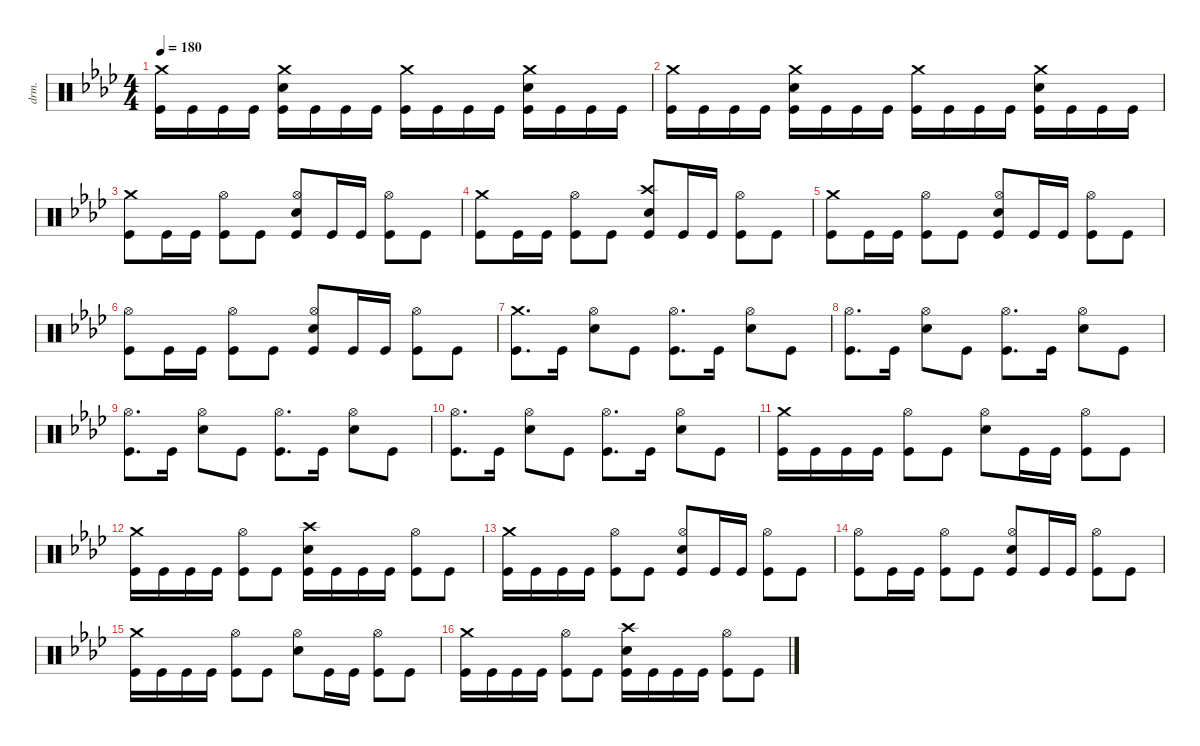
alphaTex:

\defaultSystemsLayout 4
\hideDynamics
\bracketExtendMode nobrackets
\track ("Percussion" "drm.") {instrument percussion}
\staff {score}
\articulation defaults
\ts (4 4)
\tempo 180
\clef neutral
\ks fminor
("Crash medium (hit)"{acc forcenatural} "Kick (hit)"{acc forcenatural}).16{dy f beam Down} "Kick (hit)"{acc forcenatural}.16{beam Down} "Kick (hit)"{acc forcenatural}.16{beam Down} "Kick (hit)"{acc forcenatural}.16{beam Down} ("Crash medium (hit)"{acc forcenatural} "Snare (hit) 2"{acc forcenatural} "Kick (hit)"{acc forcenatural}).16{beam Down} "Kick (hit)"{acc forcenatural}.16{beam Down} "Kick (hit)"{acc forcenatural}.16{beam Down} "Kick (hit)"{acc forcenatural}.16{beam Down} ("Crash medium (hit)"{acc forcenatural} "Kick (hit)"{acc forcenatural}).16{beam Down} "Kick (hit)"{acc forcenatural}.16{beam Down} "Kick (hit)"{acc forcenatural}.16{beam Down} "Kick (hit)"{acc forcenatural}.16{beam Down} ("Crash medium (hit)"{acc forcenatural} "Snare (hit) 2"{acc forcenatural} "Kick (hit)"{acc forcenatural}).16{beam Down} "Kick (hit)"{acc forcenatural}.16{beam Down} "Kick (hit)"{acc forcenatural}.16{beam Down} "Kick (hit)"{acc forcenatural}.16{beam Down} |
("Crash medium (hit)"{acc forcenatural} "Kick (hit)"{acc forcenatural}).16{beam Down} "Kick (hit)"{acc forcenatural}.16{beam Down} "Kick (hit)"{acc forcenatural}.16{beam Down} "Kick (hit)"{acc forcenatural}.16{beam Down} ("Crash medium (hit)"{acc forcenatural} "Snare (hit) 2"{acc forcenatural} "Kick (hit)"{acc forcenatural}).16{beam Down} "Kick (hit)"{acc forcenatural}.16{beam Down} "Kick (hit)"{acc forcenatural}.16{beam Down} "Kick (hit)"{acc forcenatural}.16{beam Down} ("Crash medium (hit)"{acc forcenatural} "Kick (hit)"{acc forcenatural}).16{beam Down} "Kick (hit)"{acc forcenatural}.16{beam Down} "Kick (hit)"{acc forcenatural}.16{beam Down} "Kick (hit)"{acc forcenatural}.16{beam Down} ("Crash medium (hit)"{acc forcenatural} "Snare (hit) 2"{acc forcenatural} "Kick (hit)"{acc forcenatural}).16{beam Down} "Kick (hit)"{acc forcenatural}.16{beam Down} "Kick (hit)"{acc forcenatural}.16{beam Down} "Kick (hit)"{acc forcenatural}.16{beam Down} |
("Crash medium (hit)"{acc forcenatural} "Kick (hit)"{acc forcenatural}).8{beam Down} "Kick (hit)"{acc forcenatural}.16{beam Down} "Kick (hit)"{acc forcenatural}.16{beam Down} ("Hi-Hat (open)"{acc forcenatural} "Kick (hit)"{acc forcenatural}).8{beam Down} "Kick (hit)"{acc forcenatural}.8{beam Down} ("Hi-Hat (open)"{acc forcenatural} "Snare (hit) 2"{acc forcenatural} "Kick (hit)"{acc forcenatural}).8{beam Up} "Kick (hit)"{acc forcenatural}.16{beam Up} "Kick (hit)"{acc forcenatural}.16{beam Up} ("Hi-Hat (open)"{acc forcenatural} "Kick (hit)"{acc forcenatural}).8{beam Down} "Kick (hit)"{acc forcenatural}.8{beam Down} |
("Crash medium (hit)"{acc forcenatural} "Kick (hit)"{acc forcenatural}).8{beam Down} "Kick (hit)"{acc forcenatural}.16{beam Down} "Kick (hit)"{acc forcenatural}.16{beam Down} ("Hi-Hat (open)"{acc forcenatural} "Kick (hit)"{acc forcenatural}).8{beam Down} "Kick (hit)"{acc forcenatural}.8{beam Down} ("Crash high (hit)"{acc forcenatural} "Snare (hit) 2"{acc forcenatural} "Kick (hit)"{acc forcenatural}).8{beam Up} "Kick (hit)"{acc forcenatural}.16{beam Up} "Kick (hit)"{acc forcenatural}.16{beam Up} ("Hi-Hat (open)"{acc forcenatural} "Kick (hit)"{acc forcenatural}).8{beam Down} "Kick (hit)"{acc forcenatural}.8{beam Down} |
("Crash medium (hit)"{acc forcenatural} "Kick (hit)"{acc forcenatural}).8{beam Down} "Kick (hit)"{acc forcenatural}.16{beam Down} "Kick (hit)"{acc forcenatural}.16{beam Down} ("Hi-Hat (open)"{acc forcenatural} "Kick (hit)"{acc forcenatural}).8{beam Down} "Kick (hit)"{acc forcenatural}.8{beam Down} ("Hi-Hat (open)"{acc forcenatural} "Snare (hit) 2"{acc forcenatural} "Kick (hit)"{acc forcenatural}).8{beam Up} "Kick (hit)"{acc forcenatural}.16{beam Up} "Kick (hit)"{acc forcenatural}.16{beam Up} ("Hi-Hat (open)"{acc forcenatural} "Kick (hit)"{acc forcenatural}).8{beam Down} "Kick (hit)"{acc forcenatural}.8{beam Down} |
("Hi-Hat (open)"{acc forcenatural} "Kick (hit)"{acc forcenatural}).8{beam Down} "Kick (hit)"{acc forcenatural}.16{beam Down} "Kick (hit)"{acc forcenatural}.16{beam Down} ("Hi-Hat (open)"{acc forcenatural} "Kick (hit)"{acc forcenatural}).8{beam Down} "Kick (hit)"{acc forcenatural}.8{beam Down} ("Hi-Hat (open)"{acc forcenatural} "Snare (hit) 2"{acc forcenatural} "Kick (hit)"{acc forcenatural}).8{beam Up} "Kick (hit)"{acc forcenatural}.16{beam Up} "Kick (hit)"{acc forcenatural}.16{beam Up} ("Hi-Hat (open)"{acc forcenatural} "Kick (hit)"{acc forcenatural}).8{beam Down} "Kick (hit)"{acc forcenatural}.8{beam Down} |
("Crash medium (hit)"{acc forcenatural} "Kick (hit)"{acc forcenatural}).8{d beam Down} "Kick (hit)"{acc forcenatural}.16{beam Down} ("Hi-Hat (open)"{acc forcenatural} "Snare (hit) 2"{acc forcenatural}).8{beam Down} "Kick (hit)"{acc forcenatural}.8{beam Down} ("Hi-Hat (open)"{acc forcenatural} "Kick (hit)"{acc forcenatural}).8{d beam Down} "Kick (hit)"{acc forcenatural}.16{beam Down} ("Hi-Hat (open)"{acc forcenatural} "Snare (hit) 2"{acc forcenatural}).8{beam Down} "Kick (hit)"{acc forcenatural}.8{beam Down} |
("Hi-Hat (open)"{acc forcenatural} "Kick (hit)"{acc forcenatural}).8{d beam Down} "Kick (hit)"{acc forcenatural}.16{beam Down} ("Hi-Hat (open)"{acc forcenatural} "Snare (hit) 2"{acc forcenatural}).8{beam Down} "Kick (hit)"{acc forcenatural}.8{beam Down} ("Hi-Hat (open)"{acc forcenatural} "Kick (hit)"{acc forcenatural}).8{d beam Down} "Kick (hit)"{acc forcenatural}.16{beam Down} ("Hi-Hat (open)"{acc forcenatural} "Snare (hit) 2"{acc forcenatural}).8{beam Down} "Kick (hit)"{acc forcenatural}.8{beam Down} |
("Hi-Hat (open)"{acc forcenatural} "Kick (hit)"{acc forcenatural}).8{d beam Down} "Kick (hit)"{acc forcenatural}.16{beam Down} ("Hi-Hat (open)"{acc forcenatural} "Snare (hit) 2"{acc forcenatural}).8{beam Down} "Kick (hit)"{acc forcenatural}.8{beam Down} ("Hi-Hat (open)"{acc forcenatural} "Kick (hit)"{acc forcenatural}).8{d beam Down} "Kick (hit)"{acc forcenatural}.16{beam Down} ("Hi-Hat (open)"{acc forcenatural} "Snare (hit) 2"{acc forcenatural}).8{beam Down} "Kick (hit)"{acc forcenatural}.8{beam Down} |
("Hi-Hat (open)"{acc forcenatural} "Kick (hit)"{acc forcenatural}).8{d beam Down} "Kick (hit)"{acc forcenatural}.16{beam Down} ("Hi-Hat (open)"{acc forcenatural} "Snare (hit) 2"{acc forcenatural}).8{beam Down} "Kick (hit)"{acc forcenatural}.8{beam Down} ("Hi-Hat (open)"{acc forcenatural} "Kick (hit)"{acc forcenatural}).8{d beam Down} "Kick (hit)"{acc forcenatural}.16{beam Down} ("Hi-Hat (open)"{acc forcenatural} "Snare (hit) 2"{acc forcenatural}).8{beam Down} "Kick (hit)"{acc forcenatural}.8{beam Down} |
("Crash medium (hit)"{acc forcenatural} "Kick (hit)"{acc forcenatural}).16{beam Down} "Kick (hit)"{acc forcenatural}.16{beam Down} "Kick (hit)"{acc forcenatural}.16{beam Down} "Kick (hit)"{acc forcenatural}.16{beam Down} ("Hi-Hat (open)"{acc forcenatural} "Kick (hit)"{acc forcenatural}).8{beam Down} "Kick (hit)"{acc forcenatural}.8{beam Down} ("Hi-Hat (open)"{acc forcenatural} "Snare (hit) 2"{acc forcenatural}).8{beam Down} "Kick (hit)"{acc forcenatural}.16{beam Down} "Kick (hit)"{acc forcenatural}.16{beam Down} ("Hi-Hat (open)"{acc forcenatural} "Kick (hit)"{acc forcenatural}).8{beam Down} "Kick (hit)"{acc forcenatural}.8{beam Down} |
("Crash medium (hit)"{acc forcenatural} "Kick (hit)"{acc forcenatural}).16{beam Down} "Kick (hit)"{acc forcenatural}.16{beam Down} "Kick (hit)"{acc forcenatural}.16{beam Down} "Kick (hit)"{acc forcenatural}.16{beam Down} ("Hi-Hat (open)"{acc forcenatural} "Kick (hit)"{acc forcenatural}).8{beam Down} "Kick (hit)"{acc forcenatural}.8{beam Down} ("Crash high (hit)"{acc forcenatural} "Snare (hit) 2"{acc forcenatural} "Kick (hit)"{acc forcenatural}).16{beam Down} "Kick (hit)"{acc forcenatural}.16{beam Down} "Kick (hit)"{acc forcenatural}.16{beam Down} "Kick (hit)"{acc forcenatural}.16{beam Down} ("Hi-Hat (open)"{acc forcenatural} "Kick (hit)"{acc forcenatural}).8{beam Down} "Kick (hit)"{acc forcenatural}.8{beam Down} |
("Crash medium (hit)"{acc forcenatural} "Kick (hit)"{acc forcenatural}).16{beam Down} "Kick (hit)"{acc forcenatural}.16{beam Down} "Kick (hit)"{acc forcenatural}.16{beam Down} "Kick (hit)"{acc forcenatural}.16{beam Down} ("Hi-Hat (open)"{acc forcenatural} "Kick (hit)"{acc forcenatural}).8{beam Down} "Kick (hit)"{acc forcenatural}.8{beam Down} ("Hi-Hat (open)"{acc forcenatural} "Snare (hit) 2"{acc forcenatural} "Kick (hit)"{acc forcenatural}).8{beam Up} "Kick (hit)"{acc forcenatural}.16{beam Up} "Kick (hit)"{acc forcenatural}.16{beam Up} ("Hi-Hat (open)"{acc forcenatural} "Kick (hit)"{acc forcenatural}).8{beam Down} "Kick (hit)"{acc forcenatural}.8{beam Down} |
("Hi-Hat (open)"{acc forcenatural} "Kick (hit)"{acc forcenatural}).8{beam Down} "Kick (hit)"{acc forcenatural}.16{beam Down} "Kick (hit)"{acc forcenatural}.16{beam Down} ("Hi-Hat (open)"{acc forcenatural} "Kick (hit)"{acc forcenatural}).8{beam Down} "Kick (hit)"{acc forcenatural}.8{beam Down} ("Hi-Hat (open)"{acc forcenatural} "Snare (hit) 2"{acc forcenatural} "Kick (hit)"{acc forcenatural}).8{beam Up} "Kick (hit)"{acc forcenatural}.16{beam Up} "Kick (hit)"{acc forcenatural}.16{beam Up} ("Hi-Hat (open)"{acc forcenatural} "Kick (hit)"{acc forcenatural}).8{beam Down} "Kick (hit)"{acc forcenatural}.8{beam Down} |
("Crash medium (hit)"{acc forcenatural} "Kick (hit)"{acc forcenatural}).16{beam Down} "Kick (hit)"{acc forcenatural}.16{beam Down} "Kick (hit)"{acc forcenatural}.16{beam Down} "Kick (hit)"{acc forcenatural}.16{beam Down} ("Hi-Hat (open)"{acc forcenatural} "Kick (hit)"{acc forcenatural}).8{beam Down} "Kick (hit)"{acc forcenatural}.8{beam Down} ("Hi-Hat (open)"{acc forcenatural} "Snare (hit) 2"{acc forcenatural}).8{beam Down} "Kick (hit)"{acc forcenatural}.16{beam Down} "Kick (hit)"{acc forcenatural}.16{beam Down} ("Hi-Hat (open)"{acc forcenatural} "Kick (hit)"{acc forcenatural}).8{beam Down} "Kick (hit)"{acc forcenatural}.8{beam Down} |
("Crash medium (hit)"{acc forcenatural} "Kick (hit)"{acc forcenatural}).16{beam Down} "Kick (hit)"{acc forcenatural}.16{beam Down} "Kick (hit)"{acc forcenatural}.16{beam Down} "Kick (hit)"{acc forcenatural}.16{beam Down} ("Hi-Hat (open)"{acc forcenatural} "Kick (hit)"{acc forcenatural}).8{beam Down} "Kick (hit)"{acc forcenatural}.8{beam Down} ("Crash high (hit)"{acc forcenatural} "Snare (hit) 2"{acc forcenatural} "Kick (hit)"{acc forcenatural}).16{beam Down} "Kick (hit)"{acc forcenatural}.16{beam Down} "Kick (hit)"{acc forcenatural}.16{beam Down} "Kick (hit)"{acc forcenatural}.16{beam Down} ("Hi-Hat (open)"{acc forcenatural} "Kick (hit)"{acc forcenatural}).8{beam Down} "Kick (hit)"{acc forcenatural}.8{beam Down}
